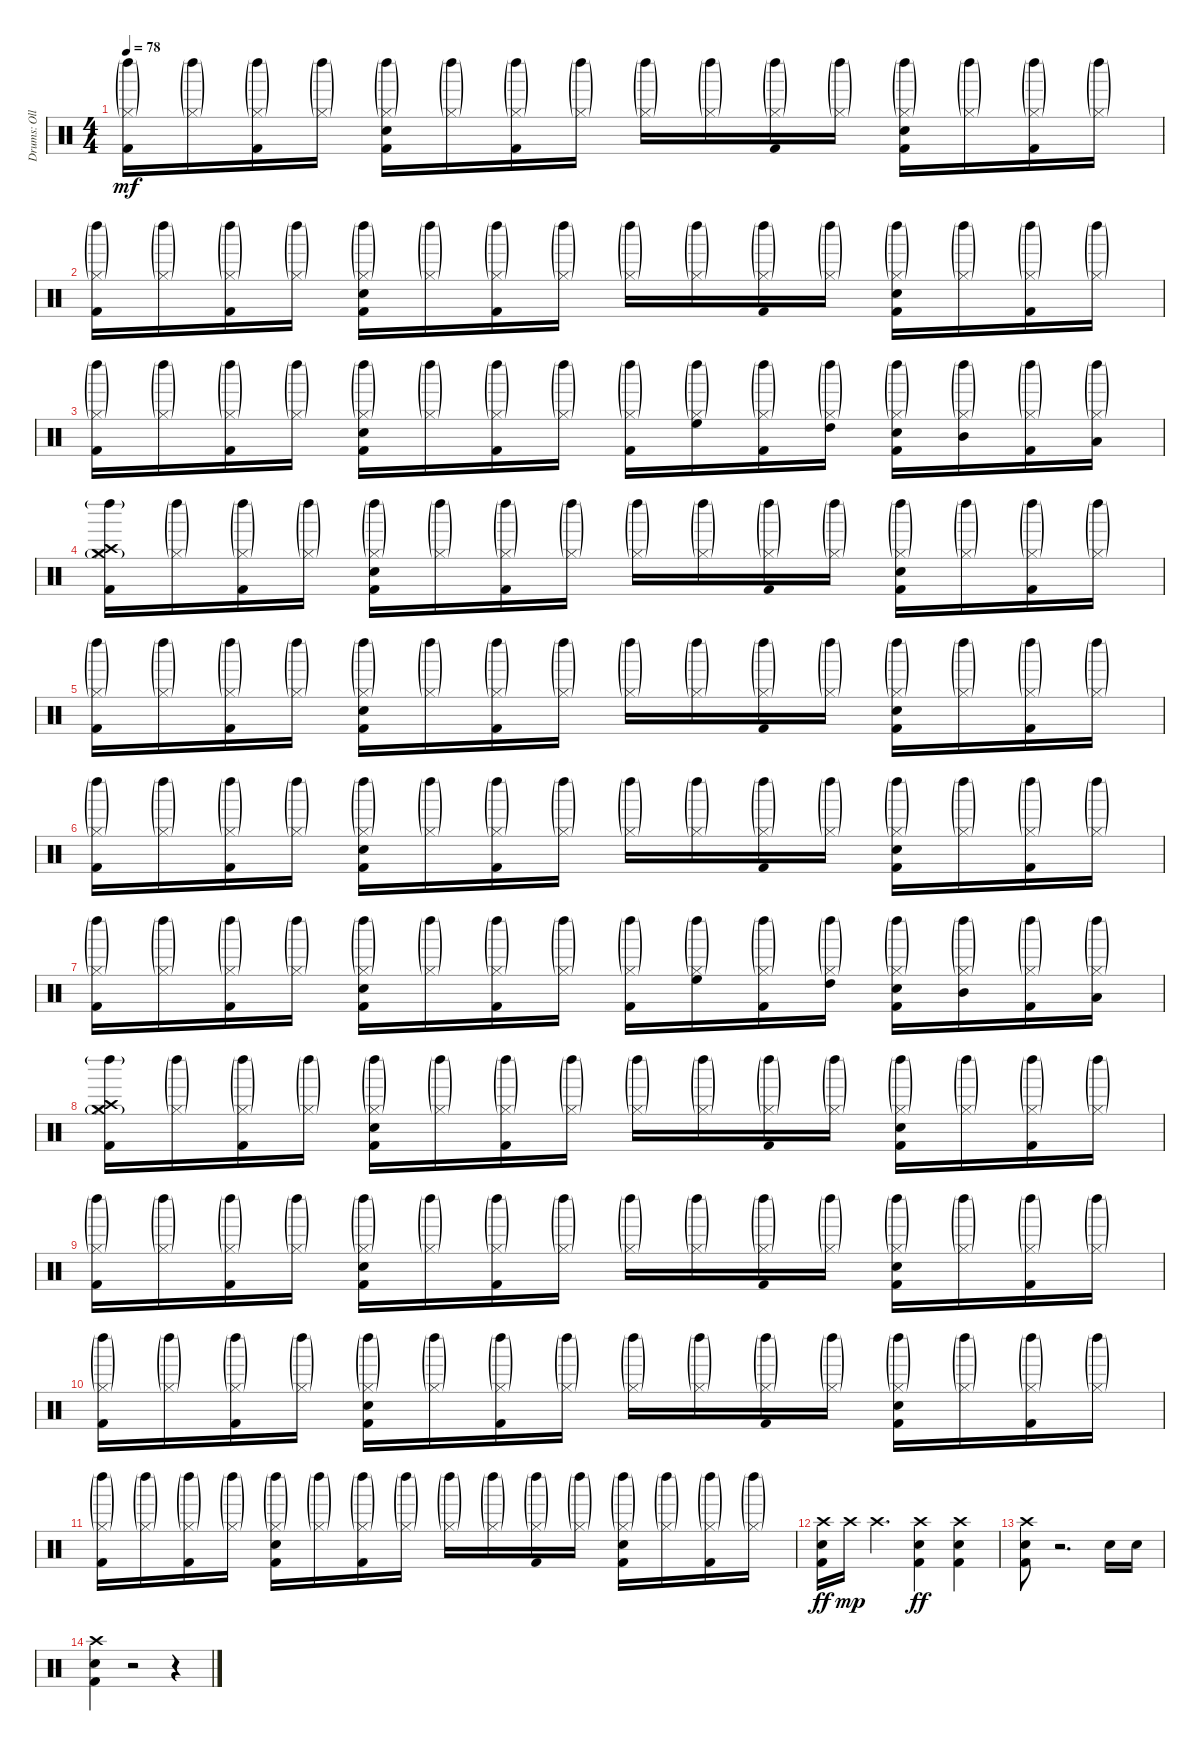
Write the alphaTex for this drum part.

\track ("Drums: Olle Romeo" "Drums: Oll") {instrument percussion}
\staff {score}
\articulation defaults
\ts (4 4)
\tempo 78
\clef neutral
\ks c
("Hi-Hat (closed)"{g} "Kick (hit) 2" "Left Maraca (hit)"{g}).16{dy mf} ("Hi-Hat (closed)"{g} "Left Maraca (hit)"{g}).16 ("Hi-Hat (closed)"{g} "Kick (hit) 2" "Left Maraca (hit)"{g}).16 ("Hi-Hat (closed)"{g} "Left Maraca (hit)"{g}).16 ("Hi-Hat (closed)"{g} "Snare (hit) 2" "Kick (hit) 2" "Left Maraca (hit)"{g}).16 ("Hi-Hat (closed)"{g} "Left Maraca (hit)"{g}).16 ("Hi-Hat (closed)"{g} "Kick (hit) 2" "Left Maraca (hit)"{g}).16 ("Hi-Hat (closed)"{g} "Left Maraca (hit)"{g}).16 ("Hi-Hat (closed)"{g} "Left Maraca (hit)"{g}).16 ("Hi-Hat (closed)"{g} "Left Maraca (hit)"{g}).16 ("Hi-Hat (closed)"{g} "Kick (hit) 2" "Left Maraca (hit)"{g}).16 ("Hi-Hat (closed)"{g} "Left Maraca (hit)"{g}).16 ("Hi-Hat (closed)"{g} "Snare (hit) 2" "Kick (hit) 2" "Left Maraca (hit)"{g}).16 ("Hi-Hat (closed)"{g} "Left Maraca (hit)"{g}).16 ("Hi-Hat (closed)"{g} "Kick (hit) 2" "Left Maraca (hit)"{g}).16 ("Hi-Hat (closed)"{g} "Left Maraca (hit)"{g}).16 |
("Hi-Hat (closed)"{g} "Kick (hit) 2" "Left Maraca (hit)"{g}).16 ("Hi-Hat (closed)"{g} "Left Maraca (hit)"{g}).16 ("Hi-Hat (closed)"{g} "Kick (hit) 2" "Left Maraca (hit)"{g}).16 ("Hi-Hat (closed)"{g} "Left Maraca (hit)"{g}).16 ("Hi-Hat (closed)"{g} "Snare (hit) 2" "Kick (hit) 2" "Left Maraca (hit)"{g}).16 ("Hi-Hat (closed)"{g} "Left Maraca (hit)"{g}).16 ("Hi-Hat (closed)"{g} "Kick (hit) 2" "Left Maraca (hit)"{g}).16 ("Hi-Hat (closed)"{g} "Left Maraca (hit)"{g}).16 ("Hi-Hat (closed)"{g} "Left Maraca (hit)"{g}).16 ("Hi-Hat (closed)"{g} "Left Maraca (hit)"{g}).16 ("Hi-Hat (closed)"{g} "Kick (hit) 2" "Left Maraca (hit)"{g}).16 ("Hi-Hat (closed)"{g} "Left Maraca (hit)"{g}).16 ("Hi-Hat (closed)"{g} "Snare (hit) 2" "Kick (hit) 2" "Left Maraca (hit)"{g}).16 ("Hi-Hat (closed)"{g} "Left Maraca (hit)"{g}).16 ("Hi-Hat (closed)"{g} "Kick (hit) 2" "Left Maraca (hit)"{g}).16 ("Hi-Hat (closed)"{g} "Left Maraca (hit)"{g}).16 |
("Hi-Hat (closed)"{g} "Kick (hit) 2" "Left Maraca (hit)"{g}).16 ("Hi-Hat (closed)"{g} "Left Maraca (hit)"{g}).16 ("Hi-Hat (closed)"{g} "Kick (hit) 2" "Left Maraca (hit)"{g}).16 ("Hi-Hat (closed)"{g} "Left Maraca (hit)"{g}).16 ("Hi-Hat (closed)"{g} "Snare (hit) 2" "Kick (hit) 2" "Left Maraca (hit)"{g}).16 ("Hi-Hat (closed)"{g} "Left Maraca (hit)"{g}).16 ("Hi-Hat (closed)"{g} "Kick (hit) 2" "Left Maraca (hit)"{g}).16 ("Hi-Hat (closed)"{g} "Left Maraca (hit)"{g}).16 ("Hi-Hat (closed)"{g} "Kick (hit) 2" "Left Maraca (hit)"{g}).16 ("Hi-Hat (closed)"{g} "High Floor Tom (hit)" "Left Maraca (hit)"{g}).16 ("Hi-Hat (closed)"{g} "Kick (hit) 2" "Left Maraca (hit)"{g}).16 ("Hi-Hat (closed)"{g} "High Tom (hit)" "Left Maraca (hit)"{g}).16 ("Hi-Hat (closed)"{g} "Snare (hit) 2" "Kick (hit) 2" "Left Maraca (hit)"{g}).16 ("Hi-Hat (closed)"{g} "Mid Tom (hit)" "Left Maraca (hit)"{g}).16 ("Hi-Hat (closed)"{g} "Kick (hit) 2" "Left Maraca (hit)"{g}).16 ("Hi-Hat (closed)"{g} "Low Tom (hit)" "Left Maraca (hit)"{g}).16 |
("Crash medium (hit)" "Hi-Hat (closed)"{g} "Crash high (hit)" "Kick (hit) 2" "Left Maraca (hit)"{g}).16 ("Hi-Hat (closed)"{g} "Left Maraca (hit)"{g}).16 ("Hi-Hat (closed)"{g} "Kick (hit) 2" "Left Maraca (hit)"{g}).16 ("Hi-Hat (closed)"{g} "Left Maraca (hit)"{g}).16 ("Hi-Hat (closed)"{g} "Snare (hit) 2" "Kick (hit) 2" "Left Maraca (hit)"{g}).16 ("Hi-Hat (closed)"{g} "Left Maraca (hit)"{g}).16 ("Hi-Hat (closed)"{g} "Kick (hit) 2" "Left Maraca (hit)"{g}).16 ("Hi-Hat (closed)"{g} "Left Maraca (hit)"{g}).16 ("Hi-Hat (closed)"{g} "Left Maraca (hit)"{g}).16 ("Hi-Hat (closed)"{g} "Left Maraca (hit)"{g}).16 ("Hi-Hat (closed)"{g} "Kick (hit) 2" "Left Maraca (hit)"{g}).16 ("Hi-Hat (closed)"{g} "Left Maraca (hit)"{g}).16 ("Hi-Hat (closed)"{g} "Snare (hit) 2" "Kick (hit) 2" "Left Maraca (hit)"{g}).16 ("Hi-Hat (closed)"{g} "Left Maraca (hit)"{g}).16 ("Hi-Hat (closed)"{g} "Kick (hit) 2" "Left Maraca (hit)"{g}).16 ("Hi-Hat (closed)"{g} "Left Maraca (hit)"{g}).16 |
("Hi-Hat (closed)"{g} "Kick (hit) 2" "Left Maraca (hit)"{g}).16 ("Hi-Hat (closed)"{g} "Left Maraca (hit)"{g}).16 ("Hi-Hat (closed)"{g} "Kick (hit) 2" "Left Maraca (hit)"{g}).16 ("Hi-Hat (closed)"{g} "Left Maraca (hit)"{g}).16 ("Hi-Hat (closed)"{g} "Snare (hit) 2" "Kick (hit) 2" "Left Maraca (hit)"{g}).16 ("Hi-Hat (closed)"{g} "Left Maraca (hit)"{g}).16 ("Hi-Hat (closed)"{g} "Kick (hit) 2" "Left Maraca (hit)"{g}).16 ("Hi-Hat (closed)"{g} "Left Maraca (hit)"{g}).16 ("Hi-Hat (closed)"{g} "Left Maraca (hit)"{g}).16 ("Hi-Hat (closed)"{g} "Left Maraca (hit)"{g}).16 ("Hi-Hat (closed)"{g} "Kick (hit) 2" "Left Maraca (hit)"{g}).16 ("Hi-Hat (closed)"{g} "Left Maraca (hit)"{g}).16 ("Hi-Hat (closed)"{g} "Snare (hit) 2" "Kick (hit) 2" "Left Maraca (hit)"{g}).16 ("Hi-Hat (closed)"{g} "Left Maraca (hit)"{g}).16 ("Hi-Hat (closed)"{g} "Kick (hit) 2" "Left Maraca (hit)"{g}).16 ("Hi-Hat (closed)"{g} "Left Maraca (hit)"{g}).16 |
("Hi-Hat (closed)"{g} "Kick (hit) 2" "Left Maraca (hit)"{g}).16 ("Hi-Hat (closed)"{g} "Left Maraca (hit)"{g}).16 ("Hi-Hat (closed)"{g} "Kick (hit) 2" "Left Maraca (hit)"{g}).16 ("Hi-Hat (closed)"{g} "Left Maraca (hit)"{g}).16 ("Hi-Hat (closed)"{g} "Snare (hit) 2" "Kick (hit) 2" "Left Maraca (hit)"{g}).16 ("Hi-Hat (closed)"{g} "Left Maraca (hit)"{g}).16 ("Hi-Hat (closed)"{g} "Kick (hit) 2" "Left Maraca (hit)"{g}).16 ("Hi-Hat (closed)"{g} "Left Maraca (hit)"{g}).16 ("Hi-Hat (closed)"{g} "Left Maraca (hit)"{g}).16 ("Hi-Hat (closed)"{g} "Left Maraca (hit)"{g}).16 ("Hi-Hat (closed)"{g} "Kick (hit) 2" "Left Maraca (hit)"{g}).16 ("Hi-Hat (closed)"{g} "Left Maraca (hit)"{g}).16 ("Hi-Hat (closed)"{g} "Snare (hit) 2" "Kick (hit) 2" "Left Maraca (hit)"{g}).16 ("Hi-Hat (closed)"{g} "Left Maraca (hit)"{g}).16 ("Hi-Hat (closed)"{g} "Kick (hit) 2" "Left Maraca (hit)"{g}).16 ("Hi-Hat (closed)"{g} "Left Maraca (hit)"{g}).16 |
("Hi-Hat (closed)"{g} "Kick (hit) 2" "Left Maraca (hit)"{g}).16 ("Hi-Hat (closed)"{g} "Left Maraca (hit)"{g}).16 ("Hi-Hat (closed)"{g} "Kick (hit) 2" "Left Maraca (hit)"{g}).16 ("Hi-Hat (closed)"{g} "Left Maraca (hit)"{g}).16 ("Hi-Hat (closed)"{g} "Snare (hit) 2" "Kick (hit) 2" "Left Maraca (hit)"{g}).16 ("Hi-Hat (closed)"{g} "Left Maraca (hit)"{g}).16 ("Hi-Hat (closed)"{g} "Kick (hit) 2" "Left Maraca (hit)"{g}).16 ("Hi-Hat (closed)"{g} "Left Maraca (hit)"{g}).16 ("Hi-Hat (closed)"{g} "Kick (hit) 2" "Left Maraca (hit)"{g}).16 ("Hi-Hat (closed)"{g} "High Floor Tom (hit)" "Left Maraca (hit)"{g}).16 ("Hi-Hat (closed)"{g} "Kick (hit) 2" "Left Maraca (hit)"{g}).16 ("Hi-Hat (closed)"{g} "High Tom (hit)" "Left Maraca (hit)"{g}).16 ("Hi-Hat (closed)"{g} "Snare (hit) 2" "Kick (hit) 2" "Left Maraca (hit)"{g}).16 ("Hi-Hat (closed)"{g} "Mid Tom (hit)" "Left Maraca (hit)"{g}).16 ("Hi-Hat (closed)"{g} "Kick (hit) 2" "Left Maraca (hit)"{g}).16 ("Hi-Hat (closed)"{g} "Low Tom (hit)" "Left Maraca (hit)"{g}).16 |
("Crash medium (hit)" "Hi-Hat (closed)"{g} "Crash high (hit)" "Kick (hit) 2" "Left Maraca (hit)"{g}).16 ("Hi-Hat (closed)"{g} "Left Maraca (hit)"{g}).16 ("Hi-Hat (closed)"{g} "Kick (hit) 2" "Left Maraca (hit)"{g}).16 ("Hi-Hat (closed)"{g} "Left Maraca (hit)"{g}).16 ("Hi-Hat (closed)"{g} "Snare (hit) 2" "Kick (hit) 2" "Left Maraca (hit)"{g}).16 ("Hi-Hat (closed)"{g} "Left Maraca (hit)"{g}).16 ("Hi-Hat (closed)"{g} "Kick (hit) 2" "Left Maraca (hit)"{g}).16 ("Hi-Hat (closed)"{g} "Left Maraca (hit)"{g}).16 ("Hi-Hat (closed)"{g} "Left Maraca (hit)"{g}).16 ("Hi-Hat (closed)"{g} "Left Maraca (hit)"{g}).16 ("Hi-Hat (closed)"{g} "Kick (hit) 2" "Left Maraca (hit)"{g}).16 ("Hi-Hat (closed)"{g} "Left Maraca (hit)"{g}).16 ("Hi-Hat (closed)"{g} "Snare (hit) 2" "Kick (hit) 2" "Left Maraca (hit)"{g}).16 ("Hi-Hat (closed)"{g} "Left Maraca (hit)"{g}).16 ("Hi-Hat (closed)"{g} "Kick (hit) 2" "Left Maraca (hit)"{g}).16 ("Hi-Hat (closed)"{g} "Left Maraca (hit)"{g}).16 |
("Hi-Hat (closed)"{g} "Kick (hit) 2" "Left Maraca (hit)"{g}).16 ("Hi-Hat (closed)"{g} "Left Maraca (hit)"{g}).16 ("Hi-Hat (closed)"{g} "Kick (hit) 2" "Left Maraca (hit)"{g}).16 ("Hi-Hat (closed)"{g} "Left Maraca (hit)"{g}).16 ("Hi-Hat (closed)"{g} "Snare (hit) 2" "Kick (hit) 2" "Left Maraca (hit)"{g}).16 ("Hi-Hat (closed)"{g} "Left Maraca (hit)"{g}).16 ("Hi-Hat (closed)"{g} "Kick (hit) 2" "Left Maraca (hit)"{g}).16 ("Hi-Hat (closed)"{g} "Left Maraca (hit)"{g}).16 ("Hi-Hat (closed)"{g} "Left Maraca (hit)"{g}).16 ("Hi-Hat (closed)"{g} "Left Maraca (hit)"{g}).16 ("Hi-Hat (closed)"{g} "Kick (hit) 2" "Left Maraca (hit)"{g}).16 ("Hi-Hat (closed)"{g} "Left Maraca (hit)"{g}).16 ("Hi-Hat (closed)"{g} "Snare (hit) 2" "Kick (hit) 2" "Left Maraca (hit)"{g}).16 ("Hi-Hat (closed)"{g} "Left Maraca (hit)"{g}).16 ("Hi-Hat (closed)"{g} "Kick (hit) 2" "Left Maraca (hit)"{g}).16 ("Hi-Hat (closed)"{g} "Left Maraca (hit)"{g}).16 |
("Hi-Hat (closed)"{g} "Kick (hit) 2" "Left Maraca (hit)"{g}).16 ("Hi-Hat (closed)"{g} "Left Maraca (hit)"{g}).16 ("Hi-Hat (closed)"{g} "Kick (hit) 2" "Left Maraca (hit)"{g}).16 ("Hi-Hat (closed)"{g} "Left Maraca (hit)"{g}).16 ("Hi-Hat (closed)"{g} "Snare (hit) 2" "Kick (hit) 2" "Left Maraca (hit)"{g}).16 ("Hi-Hat (closed)"{g} "Left Maraca (hit)"{g}).16 ("Hi-Hat (closed)"{g} "Kick (hit) 2" "Left Maraca (hit)"{g}).16 ("Hi-Hat (closed)"{g} "Left Maraca (hit)"{g}).16 ("Hi-Hat (closed)"{g} "Left Maraca (hit)"{g}).16 ("Hi-Hat (closed)"{g} "Left Maraca (hit)"{g}).16 ("Hi-Hat (closed)"{g} "Kick (hit) 2" "Left Maraca (hit)"{g}).16 ("Hi-Hat (closed)"{g} "Left Maraca (hit)"{g}).16 ("Hi-Hat (closed)"{g} "Snare (hit) 2" "Kick (hit) 2" "Left Maraca (hit)"{g}).16 ("Hi-Hat (closed)"{g} "Left Maraca (hit)"{g}).16 ("Hi-Hat (closed)"{g} "Kick (hit) 2" "Left Maraca (hit)"{g}).16 ("Hi-Hat (closed)"{g} "Left Maraca (hit)"{g}).16 |
("Hi-Hat (closed)"{g} "Kick (hit) 2" "Left Maraca (hit)"{g}).16 ("Hi-Hat (closed)"{g} "Left Maraca (hit)"{g}).16 ("Hi-Hat (closed)"{g} "Kick (hit) 2" "Left Maraca (hit)"{g}).16 ("Hi-Hat (closed)"{g} "Left Maraca (hit)"{g}).16 ("Hi-Hat (closed)"{g} "Snare (hit) 2" "Kick (hit) 2" "Left Maraca (hit)"{g}).16 ("Hi-Hat (closed)"{g} "Left Maraca (hit)"{g}).16 ("Hi-Hat (closed)"{g} "Kick (hit) 2" "Left Maraca (hit)"{g}).16 ("Hi-Hat (closed)"{g} "Left Maraca (hit)"{g}).16 ("Hi-Hat (closed)"{g} "Left Maraca (hit)"{g}).16 ("Hi-Hat (closed)"{g} "Left Maraca (hit)"{g}).16 ("Hi-Hat (closed)"{g} "Kick (hit) 2" "Left Maraca (hit)"{g}).16 ("Hi-Hat (closed)"{g} "Left Maraca (hit)"{g}).16 ("Hi-Hat (closed)"{g} "Snare (hit) 2" "Kick (hit) 2" "Left Maraca (hit)"{g}).16 ("Hi-Hat (closed)"{g} "Left Maraca (hit)"{g}).16 ("Hi-Hat (closed)"{g} "Kick (hit) 2" "Left Maraca (hit)"{g}).16 ("Hi-Hat (closed)"{g} "Left Maraca (hit)"{g}).16 |
("Crash high (hit)" "Kick (hit) 2" "Snare (hit) 2").16{dy ff} "Crash high (hit)".16{dy mp} "Crash high (hit)".4{d} ("Crash high (hit)" "Kick (hit) 2" "Snare (hit) 2").4{dy ff} ("Crash high (hit)" "Kick (hit) 2" "Snare (hit) 2").4 |
("Crash high (hit)" "Kick (hit) 2" "Snare (hit) 2").8 r.2{d} "Snare (hit) 2".16 "Snare (hit) 2".16 |
("Crash high (hit)" "Kick (hit) 2" "Snare (hit) 2").4 r.2 r.4
